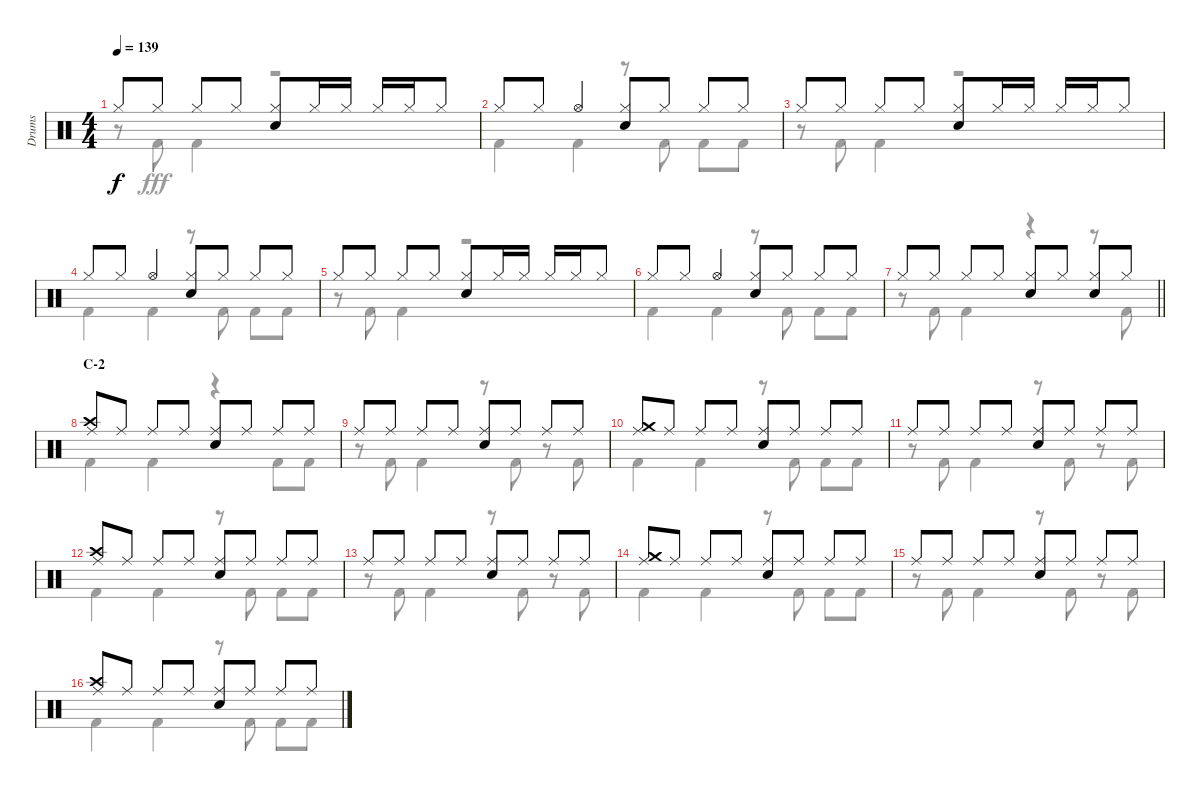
\track ("Drums" "Drums") {instrument percussion}
\staff {score}
\articulation defaults
\voice
\ts (4 4)
\tempo 139
\clef neutral
\ks aminor "Hi-Hat (closed)".8{dy f} "Hi-Hat (closed)".8 "Hi-Hat (closed)".8 "Hi-Hat (closed)".8
("Hi-Hat (closed)" "Snare (hit) 2").8 "Hi-Hat (closed)".16 "Hi-Hat (closed)".16 "Hi-Hat (closed)".16 "Hi-Hat (closed)".16 "Hi-Hat (closed)".8 |
"Hi-Hat (closed)".8 "Hi-Hat (closed)".8 "Hi-Hat (open)".4 ("Hi-Hat (closed)" "Snare (hit) 2").8 "Hi-Hat (closed)".8 "Hi-Hat (closed)".8 "Hi-Hat (closed)".8 |
"Hi-Hat (closed)".8 "Hi-Hat (closed)".8 "Hi-Hat (closed)".8 "Hi-Hat (closed)".8 ("Hi-Hat (closed)" "Snare (hit) 2").8 "Hi-Hat (closed)".16 "Hi-Hat (closed)".16 "Hi-Hat (closed)".16 "Hi-Hat (closed)".16 "Hi-Hat (closed)".8 |
"Hi-Hat (closed)".8 "Hi-Hat (closed)".8 "Hi-Hat (open)".4 ("Hi-Hat (closed)" "Snare (hit) 2").8 "Hi-Hat (closed)".8 "Hi-Hat (closed)".8 "Hi-Hat (closed)".8 |
"Hi-Hat (closed)".8 "Hi-Hat (closed)".8 "Hi-Hat (closed)".8 "Hi-Hat (closed)".8 ("Hi-Hat (closed)" "Snare (hit) 2").8 "Hi-Hat (closed)".16 "Hi-Hat (closed)".16 "Hi-Hat (closed)".16 "Hi-Hat (closed)".16 "Hi-Hat (closed)".8 |
"Hi-Hat (closed)".8 "Hi-Hat (closed)".8 "Hi-Hat (open)".4 ("Hi-Hat (closed)" "Snare (hit) 2").8 "Hi-Hat (closed)".8 "Hi-Hat (closed)".8 "Hi-Hat (closed)".8 |
\barLineRight lightlight "Hi-Hat (closed)".8 "Hi-Hat (closed)".8 "Hi-Hat (closed)".8 "Hi-Hat (closed)".8
("Hi-Hat (closed)" "Snare (hit) 2").8 "Hi-Hat (closed)".8 ("Hi-Hat (closed)" "Snare (hit) 2").8 "Hi-Hat (closed)".8 |
\section ("" "C-2")
("Crash high (hit)" "Ride (middle)").8 "Ride (middle)".8 "Ride (middle)".8 "Ride (middle)".8 ("Ride (middle)" "Snare (hit) 2").8 "Ride (middle)".8 "Ride (middle)".8 "Ride (middle)".8 |
"Ride (middle)".8 "Ride (middle)".8 "Ride (middle)".8 "Ride (middle)".8 ("Ride (middle)" "Snare (hit) 2").8 "Ride (middle)".8 "Ride (middle)".8 "Ride (middle)".8 |
("Crash medium (hit)" "Ride (middle)").8 "Ride (middle)".8 "Ride (middle)".8 "Ride (middle)".8 ("Ride (middle)" "Snare (hit) 2").8 "Ride (middle)".8 "Ride (middle)".8 "Ride (middle)".8 |
"Ride (middle)".8 "Ride (middle)".8 "Ride (middle)".8 "Ride (middle)".8 ("Ride (middle)" "Snare (hit) 2").8 "Ride (middle)".8 "Ride (middle)".8 "Ride (middle)".8 |
("Crash high (hit)" "Ride (middle)").8 "Ride (middle)".8 "Ride (middle)".8 "Ride (middle)".8 ("Ride (middle)" "Snare (hit) 2").8 "Ride (middle)".8 "Ride (middle)".8 "Ride (middle)".8 |
"Ride (middle)".8 "Ride (middle)".8 "Ride (middle)".8 "Ride (middle)".8 ("Ride (middle)" "Snare (hit) 2").8 "Ride (middle)".8 "Ride (middle)".8 "Ride (middle)".8 |
("Crash medium (hit)" "Ride (middle)").8 "Ride (middle)".8 "Ride (middle)".8 "Ride (middle)".8 ("Ride (middle)" "Snare (hit) 2").8 "Ride (middle)".8 "Ride (middle)".8 "Ride (middle)".8 |
"Ride (middle)".8 "Ride (middle)".8 "Ride (middle)".8 "Ride (middle)".8 ("Ride (middle)" "Snare (hit) 2").8 "Ride (middle)".8 "Ride (middle)".8 "Ride (middle)".8 |
("Crash high (hit)" "Ride (middle)").8 "Ride (middle)".8 "Ride (middle)".8 "Ride (middle)".8 ("Ride (middle)" "Snare (hit) 2").8 "Ride (middle)".8 "Ride (middle)".8 "Ride (middle)".8
\voice
\clef neutral
\ottava regular
\simile none
\ks aminor
r.8{dy fff} "Kick (hit) 2".8 "Kick (hit) 2".4 r.2 |
"Kick (hit) 2".4 "Kick (hit) 2".4 r.8 "Kick (hit) 2".8 "Kick (hit) 2".8 "Kick (hit) 2".8 |
r.8 "Kick (hit) 2".8 "Kick (hit) 2".4 r.2 |
"Kick (hit) 2".4 "Kick (hit) 2".4 r.8 "Kick (hit) 2".8 "Kick (hit) 2".8 "Kick (hit) 2".8 |
r.8 "Kick (hit) 2".8 "Kick (hit) 2".4 r.2 |
"Kick (hit) 2".4 "Kick (hit) 2".4 r.8 "Kick (hit) 2".8 "Kick (hit) 2".8 "Kick (hit) 2".8 |
\barLineRight lightlight
r.8 "Kick (hit) 2".8 "Kick (hit) 2".4 r.4 r.8 "Kick (hit) 2".8 |
"Kick (hit) 2".4 "Kick (hit) 2".4 r.4 "Kick (hit) 2".8 "Kick (hit) 2".8 |
r.8 "Kick (hit) 2".8 "Kick (hit) 2".4 r.8 "Kick (hit) 2".8 r.8 "Kick (hit) 2".8 |
"Kick (hit) 2".4 "Kick (hit) 2".4 r.8 "Kick (hit) 2".8 "Kick (hit) 2".8 "Kick (hit) 2".8 |
r.8 "Kick (hit) 2".8 "Kick (hit) 2".4 r.8 "Kick (hit) 2".8 r.8 "Kick (hit) 2".8 |
"Kick (hit) 2".4 "Kick (hit) 2".4 r.8 "Kick (hit) 2".8 "Kick (hit) 2".8 "Kick (hit) 2".8 |
r.8 "Kick (hit) 2".8 "Kick (hit) 2".4 r.8 "Kick (hit) 2".8 r.8 "Kick (hit) 2".8 |
"Kick (hit) 2".4 "Kick (hit) 2".4 r.8 "Kick (hit) 2".8 "Kick (hit) 2".8 "Kick (hit) 2".8 |
r.8 "Kick (hit) 2".8 "Kick (hit) 2".4 r.8 "Kick (hit) 2".8 r.8 "Kick (hit) 2".8 |
"Kick (hit) 2".4 "Kick (hit) 2".4 r.8 "Kick (hit) 2".8 "Kick (hit) 2".8 "Kick (hit) 2".8
